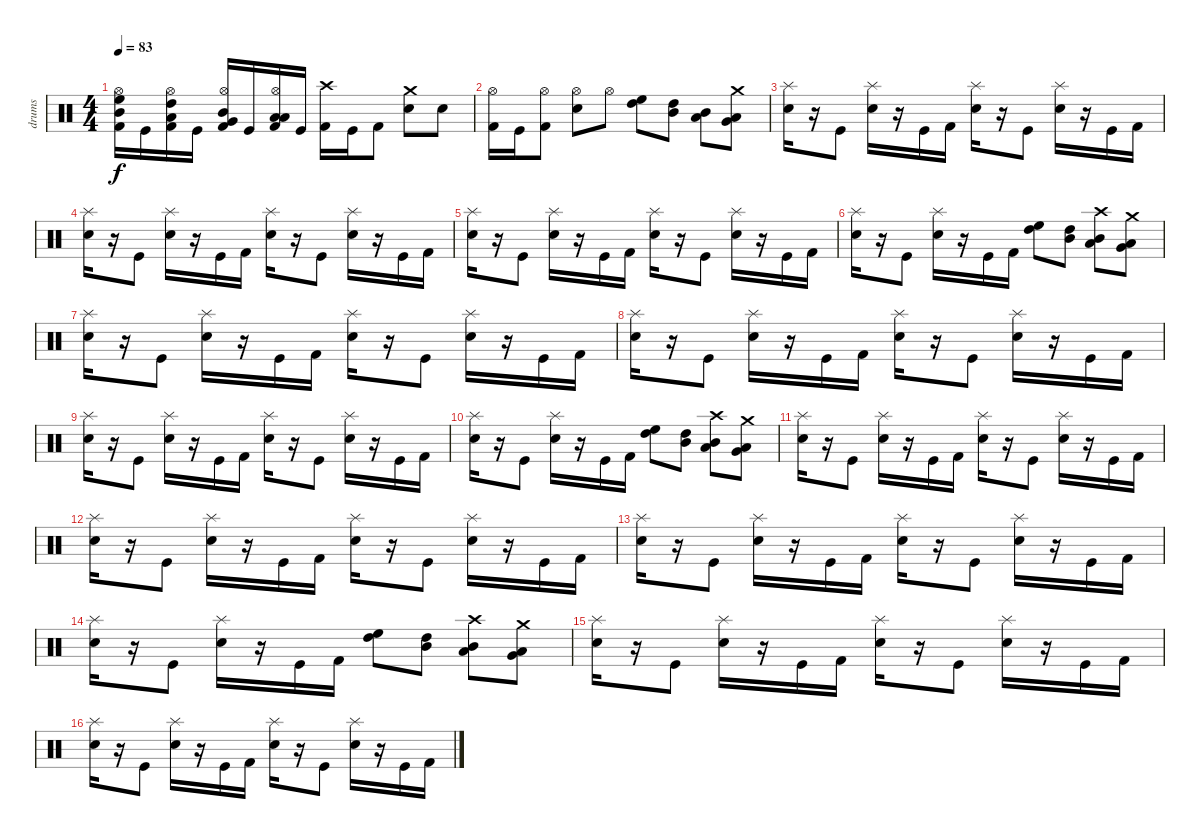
\track ("drums" "drums") {instrument percussion}
\staff {score}
\articulation defaults
\ts (4 4)
\tempo 83
\clef neutral
\ks c
("Kick (hit) 2" "Mid Tom (hit)" "High Floor Tom (hit)" "Hi-Hat (open)").16{dy f} "Kick (hit)".16 ("Kick (hit) 2" "Low Tom (hit)" "High Tom (hit)" "Hi-Hat (open)").16 "Kick (hit)".16 ("Kick (hit) 2" "Very Low Tom (hit)" "Mid Tom (hit)" "Hi-Hat (open)").16 "Kick (hit)".16 ("Kick (hit) 2" "Low Floor Tom (hit)" "Low Tom (hit)" "Hi-Hat (open)").16 "Kick (hit)".16 ("Kick (hit) 2" "Crash high (hit)").16 "Kick (hit)".16 "Kick (hit) 2".8 ("Electric Snare (hit)" "Crash medium (hit)").8 "Snare (hit) 2".8 |
("Kick (hit) 2" "Hi-Hat (open)").16 "Kick (hit)".16 ("Kick (hit) 2" "Hi-Hat (open)").8 ("Electric Snare (hit)" "Hi-Hat (open)").8 "Hi-Hat (open)".8 ("High Tom (hit)" "High Floor Tom (hit)").8 ("Mid Tom (hit)" "High Tom (hit)").8 ("Low Tom (hit)" "Mid Tom (hit)").8 ("Very Low Tom (hit)" "Low Tom (hit)" "Crash medium (hit)").8 |
("Snare (hit) 2" "Splash (hit)").16 r.16 "Kick (hit)".8 ("Snare (hit) 2" "Splash (hit)").16 r.16 "Kick (hit)".16 "Kick (hit) 2".16 ("Snare (hit) 2" "Splash (hit)").16 r.16 "Kick (hit)".8 ("Snare (hit) 2" "Splash (hit)").16 r.16 "Kick (hit)".16 "Kick (hit) 2".16 |
("Snare (hit) 2" "Splash (hit)").16 r.16 "Kick (hit)".8 ("Snare (hit) 2" "Splash (hit)").16 r.16 "Kick (hit)".16 "Kick (hit) 2".16 ("Snare (hit) 2" "Splash (hit)").16 r.16 "Kick (hit)".8 ("Snare (hit) 2" "Splash (hit)").16 r.16 "Kick (hit)".16 "Kick (hit) 2".16 |
("Snare (hit) 2" "Splash (hit)").16 r.16 "Kick (hit)".8 ("Snare (hit) 2" "Splash (hit)").16 r.16 "Kick (hit)".16 "Kick (hit) 2".16 ("Snare (hit) 2" "Splash (hit)").16 r.16 "Kick (hit)".8 ("Snare (hit) 2" "Splash (hit)").16 r.16 "Kick (hit)".16 "Kick (hit) 2".16 |
("Snare (hit) 2" "Splash (hit)").16 r.16 "Kick (hit)".8 ("Snare (hit) 2" "Splash (hit)").16 r.16 "Kick (hit)".16 "Kick (hit) 2".16 ("High Floor Tom (hit)" "High Tom (hit)").8 ("Mid Tom (hit)" "High Tom (hit)").8 ("Low Tom (hit)" "Mid Tom (hit)" "Crash high (hit)").8 ("Very Low Tom (hit)" "Low Tom (hit)" "Crash medium (hit)").8 |
("Snare (hit) 2" "Splash (hit)").16 r.16 "Kick (hit)".8 ("Snare (hit) 2" "Splash (hit)").16 r.16 "Kick (hit)".16 "Kick (hit) 2".16 ("Snare (hit) 2" "Splash (hit)").16 r.16 "Kick (hit)".8 ("Snare (hit) 2" "Splash (hit)").16 r.16 "Kick (hit)".16 "Kick (hit) 2".16 |
("Snare (hit) 2" "Splash (hit)").16 r.16 "Kick (hit)".8 ("Snare (hit) 2" "Splash (hit)").16 r.16 "Kick (hit)".16 "Kick (hit) 2".16 ("Snare (hit) 2" "Splash (hit)").16 r.16 "Kick (hit)".8 ("Snare (hit) 2" "Splash (hit)").16 r.16 "Kick (hit)".16 "Kick (hit) 2".16 |
("Snare (hit) 2" "Splash (hit)").16 r.16 "Kick (hit)".8 ("Snare (hit) 2" "Splash (hit)").16 r.16 "Kick (hit)".16 "Kick (hit) 2".16 ("Snare (hit) 2" "Splash (hit)").16 r.16 "Kick (hit)".8 ("Snare (hit) 2" "Splash (hit)").16 r.16 "Kick (hit)".16 "Kick (hit) 2".16 |
("Snare (hit) 2" "Splash (hit)").16 r.16 "Kick (hit)".8 ("Snare (hit) 2" "Splash (hit)").16 r.16 "Kick (hit)".16 "Kick (hit) 2".16 ("High Floor Tom (hit)" "High Tom (hit)").8 ("Mid Tom (hit)" "High Tom (hit)").8 ("Low Tom (hit)" "Mid Tom (hit)" "Crash high (hit)").8 ("Very Low Tom (hit)" "Low Tom (hit)" "Crash medium (hit)").8 |
("Snare (hit) 2" "Splash (hit)").16 r.16 "Kick (hit)".8 ("Snare (hit) 2" "Splash (hit)").16 r.16 "Kick (hit)".16 "Kick (hit) 2".16 ("Snare (hit) 2" "Splash (hit)").16 r.16 "Kick (hit)".8 ("Snare (hit) 2" "Splash (hit)").16 r.16 "Kick (hit)".16 "Kick (hit) 2".16 |
("Snare (hit) 2" "Splash (hit)").16 r.16 "Kick (hit)".8 ("Snare (hit) 2" "Splash (hit)").16 r.16 "Kick (hit)".16 "Kick (hit) 2".16 ("Snare (hit) 2" "Splash (hit)").16 r.16 "Kick (hit)".8 ("Snare (hit) 2" "Splash (hit)").16 r.16 "Kick (hit)".16 "Kick (hit) 2".16 |
("Snare (hit) 2" "Splash (hit)").16 r.16 "Kick (hit)".8 ("Snare (hit) 2" "Splash (hit)").16 r.16 "Kick (hit)".16 "Kick (hit) 2".16 ("Snare (hit) 2" "Splash (hit)").16 r.16 "Kick (hit)".8 ("Snare (hit) 2" "Splash (hit)").16 r.16 "Kick (hit)".16 "Kick (hit) 2".16 |
("Snare (hit) 2" "Splash (hit)").16 r.16 "Kick (hit)".8 ("Snare (hit) 2" "Splash (hit)").16 r.16 "Kick (hit)".16 "Kick (hit) 2".16 ("High Floor Tom (hit)" "High Tom (hit)").8 ("Mid Tom (hit)" "High Tom (hit)").8 ("Low Tom (hit)" "Mid Tom (hit)" "Crash high (hit)").8 ("Very Low Tom (hit)" "Low Tom (hit)" "Crash medium (hit)").8 |
("Snare (hit) 2" "Splash (hit)").16 r.16 "Kick (hit)".8 ("Snare (hit) 2" "Splash (hit)").16 r.16 "Kick (hit)".16 "Kick (hit) 2".16 ("Snare (hit) 2" "Splash (hit)").16 r.16 "Kick (hit)".8 ("Snare (hit) 2" "Splash (hit)").16 r.16 "Kick (hit)".16 "Kick (hit) 2".16 |
("Snare (hit) 2" "Splash (hit)").16 r.16 "Kick (hit)".8 ("Snare (hit) 2" "Splash (hit)").16 r.16 "Kick (hit)".16 "Kick (hit) 2".16 ("Snare (hit) 2" "Splash (hit)").16 r.16 "Kick (hit)".8 ("Snare (hit) 2" "Splash (hit)").16 r.16 "Kick (hit)".16 "Kick (hit) 2".16
